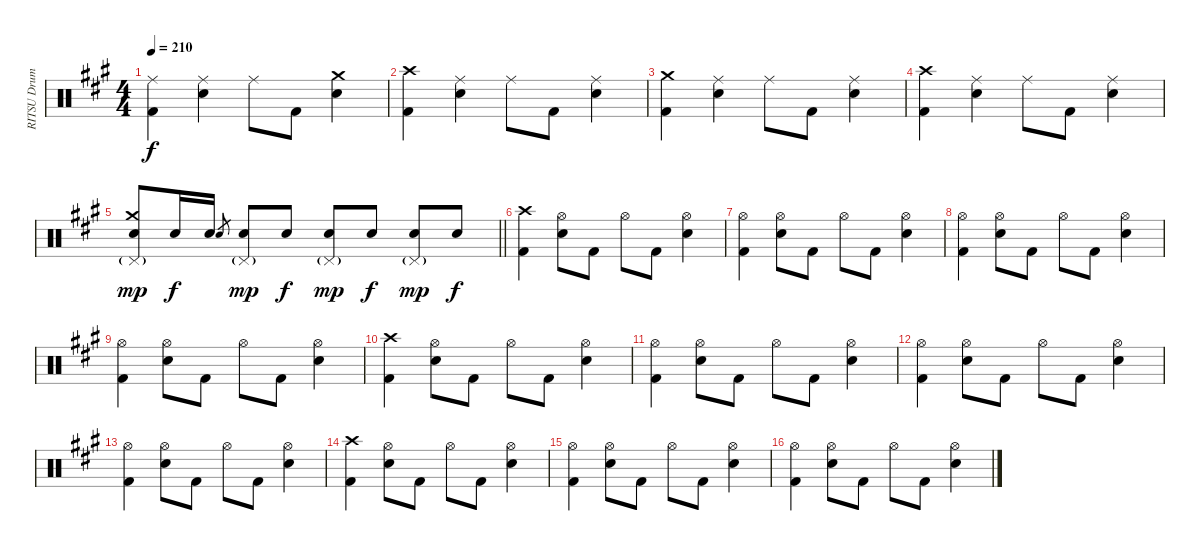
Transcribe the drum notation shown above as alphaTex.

\track ("RITSU Drums" "RITSU Drum") {instrument percussion}
\staff {score}
\articulation defaults
\ts (4 4)
\tempo 210
\clef neutral
\ks a
("Ride (middle)" "Kick (hit) 2").4{dy f} ("Ride (middle)" "Electric Snare (hit)").4 "Ride (middle)".8 "Kick (hit) 2".8 ("Crash medium (hit)" "Electric Snare (hit)").4 |
("Crash high (hit)" "Kick (hit) 2").4 ("Ride (middle)" "Electric Snare (hit)").4 "Ride (middle)".8 "Kick (hit) 2".8 ("Ride (middle)" "Electric Snare (hit)").4 |
("Crash medium (hit)" "Kick (hit) 2").4 ("Ride (middle)" "Electric Snare (hit)").4 "Ride (middle)".8 "Kick (hit) 2".8 ("Ride (middle)" "Electric Snare (hit)").4 |
("Crash high (hit)" "Kick (hit) 2").4 ("Ride (middle)" "Electric Snare (hit)").4 "Ride (middle)".8 "Kick (hit) 2".8 ("Ride (middle)" "Electric Snare (hit)").4 |
\barLineRight lightlight
("Crash medium (hit)" "Pedal Hi-Hat (hit)"{g} "Electric Snare (hit)").8{dy mp} "Electric Snare (hit)".16{dy f} "Electric Snare (hit)".16 "Electric Snare (hit)".8{gr} ("Pedal Hi-Hat (hit)"{g} "Electric Snare (hit)").8{dy mp} "Electric Snare (hit)".8{dy f} ("Pedal Hi-Hat (hit)"{g} "Electric Snare (hit)").8{dy mp} "Electric Snare (hit)".8{dy f} ("Pedal Hi-Hat (hit)"{g} "Electric Snare (hit)").8{dy mp} "Electric Snare (hit)".8{dy f} |
("Crash high (hit)" "Kick (hit) 2").4 ("Hi-Hat (open)" "Electric Snare (hit)").8 "Kick (hit) 2".8 "Hi-Hat (open)".8 "Kick (hit) 2".8 ("Hi-Hat (open)" "Electric Snare (hit)").4 |
("Hi-Hat (open)" "Kick (hit) 2").4 ("Hi-Hat (open)" "Electric Snare (hit)").8 "Kick (hit) 2".8 "Hi-Hat (open)".8 "Kick (hit) 2".8 ("Hi-Hat (open)" "Electric Snare (hit)").4 |
("Hi-Hat (open)" "Kick (hit) 2").4 ("Hi-Hat (open)" "Electric Snare (hit)").8 "Kick (hit) 2".8 "Hi-Hat (open)".8 "Kick (hit) 2".8 ("Hi-Hat (open)" "Electric Snare (hit)").4 |
("Hi-Hat (open)" "Kick (hit) 2").4 ("Hi-Hat (open)" "Electric Snare (hit)").8 "Kick (hit) 2".8 "Hi-Hat (open)".8 "Kick (hit) 2".8 ("Hi-Hat (open)" "Electric Snare (hit)").4 |
("Crash high (hit)" "Kick (hit) 2").4 ("Hi-Hat (open)" "Electric Snare (hit)").8 "Kick (hit) 2".8 "Hi-Hat (open)".8 "Kick (hit) 2".8 ("Hi-Hat (open)" "Electric Snare (hit)").4 |
("Hi-Hat (open)" "Kick (hit) 2").4 ("Hi-Hat (open)" "Electric Snare (hit)").8 "Kick (hit) 2".8 "Hi-Hat (open)".8 "Kick (hit) 2".8 ("Hi-Hat (open)" "Electric Snare (hit)").4 |
("Hi-Hat (open)" "Kick (hit) 2").4 ("Hi-Hat (open)" "Electric Snare (hit)").8 "Kick (hit) 2".8 "Hi-Hat (open)".8 "Kick (hit) 2".8 ("Hi-Hat (open)" "Electric Snare (hit)").4 |
("Hi-Hat (open)" "Kick (hit) 2").4 ("Hi-Hat (open)" "Electric Snare (hit)").8 "Kick (hit) 2".8 "Hi-Hat (open)".8 "Kick (hit) 2".8 ("Hi-Hat (open)" "Electric Snare (hit)").4 |
("Crash high (hit)" "Kick (hit) 2").4 ("Hi-Hat (open)" "Electric Snare (hit)").8 "Kick (hit) 2".8 "Hi-Hat (open)".8 "Kick (hit) 2".8 ("Hi-Hat (open)" "Electric Snare (hit)").4 |
("Hi-Hat (open)" "Kick (hit) 2").4 ("Hi-Hat (open)" "Electric Snare (hit)").8 "Kick (hit) 2".8 "Hi-Hat (open)".8 "Kick (hit) 2".8 ("Hi-Hat (open)" "Electric Snare (hit)").4 |
("Hi-Hat (open)" "Kick (hit) 2").4 ("Hi-Hat (open)" "Electric Snare (hit)").8 "Kick (hit) 2".8 "Hi-Hat (open)".8 "Kick (hit) 2".8 ("Hi-Hat (open)" "Electric Snare (hit)").4
